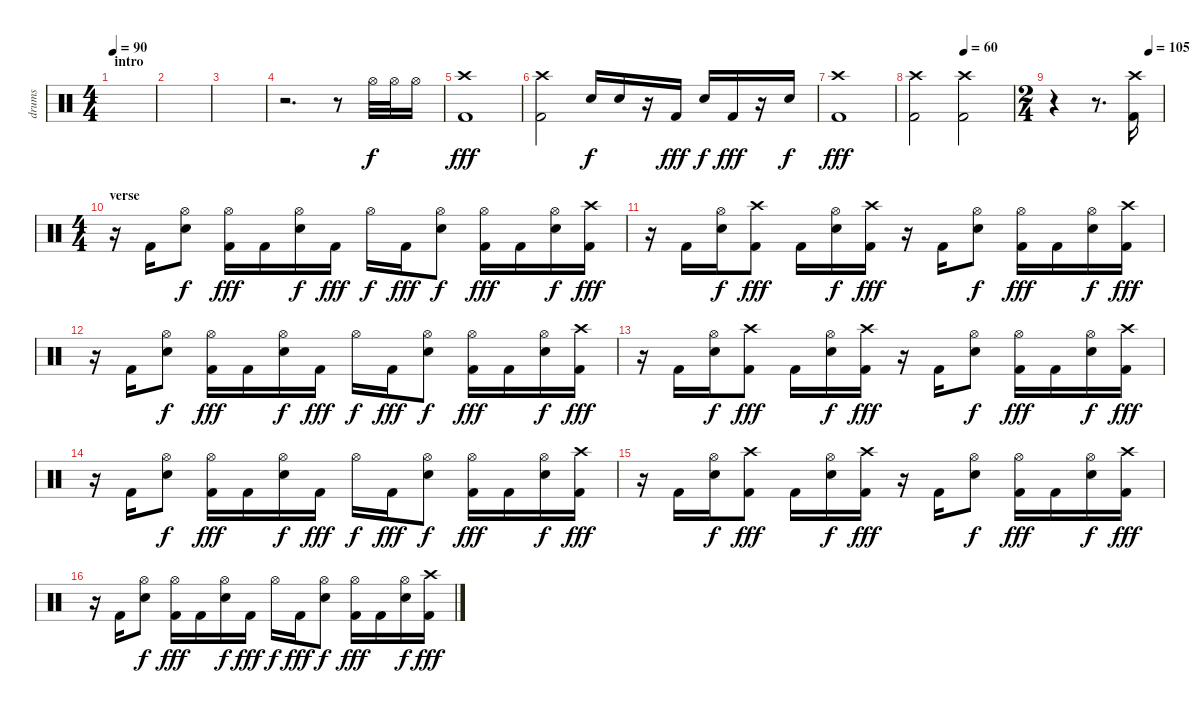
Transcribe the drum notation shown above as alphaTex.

\track ("drums" "drums") {instrument percussion}
\staff {score}
\articulation defaults
\ts (4 4)
\section ("" "intro")
\tempo 90
\clef neutral
\ks c
|
|
|
r.2{d} r.8 "Hi-Hat (open)".32 "Hi-Hat (open)".32 "Hi-Hat (open)".16 |
("Crash high (hit)" "Kick (hit) 2").1{dy fff} |
("Crash high (hit)" "Kick (hit) 2").2 "Snare (hit) 2".16{dy f} "Snare (hit) 2".16 r.16 "Kick (hit) 2".16{dy fff} "Snare (hit) 2".16{dy f} "Kick (hit) 2".16{dy fff} r.16 "Snare (hit) 2".16{dy f} |
("Crash high (hit)" "Kick (hit) 2").1{dy fff} |
\tempo (60 0.5)
("Crash high (hit)" "Kick (hit) 2").2 ("Crash high (hit)" "Kick (hit) 2").2 |
\ts (2 4)
\tempo (105 0.875)
r.4 r.8{d} ("Crash high (hit)" "Kick (hit) 2").16 |
\ts (4 4)
\section ("" "verse")
r.16 "Kick (hit) 2".16 ("Hi-Hat (open)" "Snare (hit) 2").8{dy f} ("Hi-Hat (open)" "Kick (hit) 2").16{dy fff} "Kick (hit) 2".16 ("Hi-Hat (open)" "Snare (hit) 2").16{dy f} "Kick (hit) 2".16{dy fff} "Hi-Hat (open)".16{dy f} "Kick (hit) 2".16{dy fff} ("Hi-Hat (open)" "Snare (hit) 2").8{dy f} ("Hi-Hat (open)" "Kick (hit) 2").16{dy fff} "Kick (hit) 2".16 ("Hi-Hat (open)" "Snare (hit) 2").16{dy f} ("Crash high (hit)" "Kick (hit) 2").16{dy fff} |
r.16 "Kick (hit) 2".16 ("Hi-Hat (open)" "Snare (hit) 2").16{dy f} ("Crash high (hit)" "Kick (hit) 2").8{dy fff} "Kick (hit) 2".16 ("Hi-Hat (open)" "Snare (hit) 2").16{dy f} ("Crash high (hit)" "Kick (hit) 2").16{dy fff} r.16 "Kick (hit) 2".16 ("Hi-Hat (open)" "Snare (hit) 2").8{dy f} ("Hi-Hat (open)" "Kick (hit) 2").16{dy fff} "Kick (hit) 2".16 ("Hi-Hat (open)" "Snare (hit) 2").16{dy f} ("Crash high (hit)" "Kick (hit) 2").16{dy fff} |
r.16 "Kick (hit) 2".16 ("Hi-Hat (open)" "Snare (hit) 2").8{dy f} ("Hi-Hat (open)" "Kick (hit) 2").16{dy fff} "Kick (hit) 2".16 ("Hi-Hat (open)" "Snare (hit) 2").16{dy f} "Kick (hit) 2".16{dy fff} "Hi-Hat (open)".16{dy f} "Kick (hit) 2".16{dy fff} ("Hi-Hat (open)" "Snare (hit) 2").8{dy f} ("Hi-Hat (open)" "Kick (hit) 2").16{dy fff} "Kick (hit) 2".16 ("Hi-Hat (open)" "Snare (hit) 2").16{dy f} ("Crash high (hit)" "Kick (hit) 2").16{dy fff} |
r.16 "Kick (hit) 2".16 ("Hi-Hat (open)" "Snare (hit) 2").16{dy f} ("Crash high (hit)" "Kick (hit) 2").8{dy fff} "Kick (hit) 2".16 ("Hi-Hat (open)" "Snare (hit) 2").16{dy f} ("Crash high (hit)" "Kick (hit) 2").16{dy fff} r.16 "Kick (hit) 2".16 ("Hi-Hat (open)" "Snare (hit) 2").8{dy f} ("Hi-Hat (open)" "Kick (hit) 2").16{dy fff} "Kick (hit) 2".16 ("Hi-Hat (open)" "Snare (hit) 2").16{dy f} ("Crash high (hit)" "Kick (hit) 2").16{dy fff} |
r.16 "Kick (hit) 2".16 ("Hi-Hat (open)" "Snare (hit) 2").8{dy f} ("Hi-Hat (open)" "Kick (hit) 2").16{dy fff} "Kick (hit) 2".16 ("Hi-Hat (open)" "Snare (hit) 2").16{dy f} "Kick (hit) 2".16{dy fff} "Hi-Hat (open)".16{dy f} "Kick (hit) 2".16{dy fff} ("Hi-Hat (open)" "Snare (hit) 2").8{dy f} ("Hi-Hat (open)" "Kick (hit) 2").16{dy fff} "Kick (hit) 2".16 ("Hi-Hat (open)" "Snare (hit) 2").16{dy f} ("Crash high (hit)" "Kick (hit) 2").16{dy fff} |
r.16 "Kick (hit) 2".16 ("Hi-Hat (open)" "Snare (hit) 2").16{dy f} ("Crash high (hit)" "Kick (hit) 2").8{dy fff} "Kick (hit) 2".16 ("Hi-Hat (open)" "Snare (hit) 2").16{dy f} ("Crash high (hit)" "Kick (hit) 2").16{dy fff} r.16 "Kick (hit) 2".16 ("Hi-Hat (open)" "Snare (hit) 2").8{dy f} ("Hi-Hat (open)" "Kick (hit) 2").16{dy fff} "Kick (hit) 2".16 ("Hi-Hat (open)" "Snare (hit) 2").16{dy f} ("Crash high (hit)" "Kick (hit) 2").16{dy fff} |
r.16 "Kick (hit) 2".16 ("Hi-Hat (open)" "Snare (hit) 2").8{dy f} ("Hi-Hat (open)" "Kick (hit) 2").16{dy fff} "Kick (hit) 2".16 ("Hi-Hat (open)" "Snare (hit) 2").16{dy f} "Kick (hit) 2".16{dy fff} "Hi-Hat (open)".16{dy f} "Kick (hit) 2".16{dy fff} ("Hi-Hat (open)" "Snare (hit) 2").8{dy f} ("Hi-Hat (open)" "Kick (hit) 2").16{dy fff} "Kick (hit) 2".16 ("Hi-Hat (open)" "Snare (hit) 2").16{dy f} ("Crash high (hit)" "Kick (hit) 2").16{dy fff}
